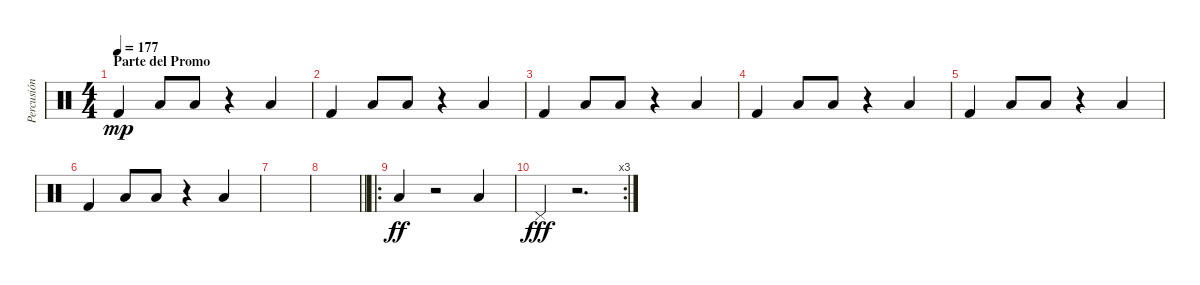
\track ("Percusión" "Percusión") {instrument percussion}
\staff {score}
\articulation defaults
\ts (4 4)
\section ("" "Parte del Promo")
\tempo 177
\clef neutral
\ks c "Kick (hit) 2".4{dy mp} "Low Floor Tom (hit)".8 "Low Floor Tom (hit)".8
r.4 "Low Floor Tom (hit)".4 |
"Kick (hit) 2".4 "Low Floor Tom (hit)".8 "Low Floor Tom (hit)".8 r.4 "Low Floor Tom (hit)".4 |
"Kick (hit) 2".4 "Low Floor Tom (hit)".8 "Low Floor Tom (hit)".8 r.4 "Low Floor Tom (hit)".4 |
"Kick (hit) 2".4 "Low Floor Tom (hit)".8 "Low Floor Tom (hit)".8 r.4 "Low Floor Tom (hit)".4 |
"Kick (hit) 2".4 "Low Floor Tom (hit)".8 "Low Floor Tom (hit)".8 r.4 "Low Floor Tom (hit)".4 |
"Kick (hit) 2".4 "Low Floor Tom (hit)".8 "Low Floor Tom (hit)".8 r.4 "Low Floor Tom (hit)".4 |
|
\barLineRight lightlight
|
\ro "Low Floor Tom (hit)".4{dy ff}
r.2 "Low Floor Tom (hit)".4 |
\rc 3 "Pedal Hi-Hat (hit)".4{dy fff}
r.2{d}
